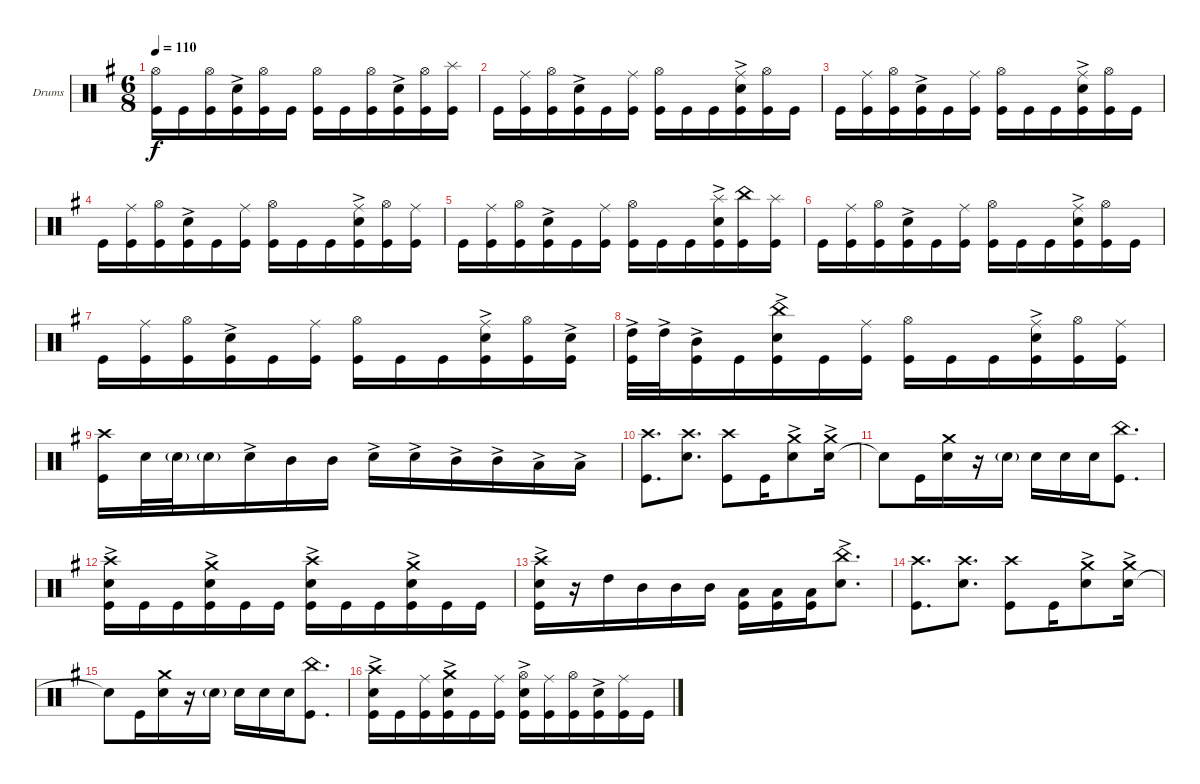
\bracketExtendMode groupsimilarinstruments
\firstSystemTrackNameOrientation horizontal
\otherSystemsTrackNameOrientation horizontal
\track ("Drumkit" "Drums") {instrument percussion}
\staff {score}
\articulation defaults
\ts (6 8)
\tempo 110
\clef neutral
\ks eminor
("Kick (hit)" "Hi-Hat (open)").16{dy f} "Kick (hit)".16 ("Kick (hit)" "Hi-Hat (open)").16 ("Kick (hit)" "Snare (hit) 2"{ac}).16 ("Kick (hit)" "Hi-Hat (open)").16 "Kick (hit)".16 ("Kick (hit)" "Hi-Hat (open)").16 "Kick (hit)".16 ("Kick (hit)" "Hi-Hat (open)").16 ("Kick (hit)" "Snare (hit) 2"{ac}).16 ("Kick (hit)" "Hi-Hat (open)").16 ("Kick (hit)" "Splash (hit)").16 |
"Kick (hit)".16 ("Kick (hit)" "Ride (middle)").16 ("Kick (hit)" "Hi-Hat (open)").16 ("Kick (hit)" "Snare (hit) 2"{ac}).16 "Kick (hit)".16 ("Kick (hit)" "Ride (middle)").16 ("Kick (hit)" "Hi-Hat (open)").16 "Kick (hit)".16 "Kick (hit)".16 ("Kick (hit)" "Snare (hit) 2"{ac} "Ride (middle)").16 ("Kick (hit)" "Hi-Hat (open)").16 "Kick (hit)".16 |
"Kick (hit)".16 ("Kick (hit)" "Ride (middle)").16 ("Kick (hit)" "Hi-Hat (open)").16 ("Kick (hit)" "Snare (hit) 2"{ac}).16 "Kick (hit)".16 ("Kick (hit)" "Ride (middle)").16 ("Kick (hit)" "Hi-Hat (open)").16 "Kick (hit)".16 "Kick (hit)".16 ("Kick (hit)" "Snare (hit) 2"{ac} "Ride (middle)").16 ("Kick (hit)" "Hi-Hat (open)").16 "Kick (hit)".16 |
"Kick (hit)".16 ("Kick (hit)" "Ride (middle)").16 ("Kick (hit)" "Hi-Hat (open)").16 ("Kick (hit)" "Snare (hit) 2"{ac}).16 "Kick (hit)".16 ("Kick (hit)" "Ride (middle)").16 ("Kick (hit)" "Hi-Hat (open)").16 "Kick (hit)".16 "Kick (hit)".16 ("Kick (hit)" "Snare (hit) 2"{ac} "Ride (middle)").16 ("Kick (hit)" "Hi-Hat (open)").16 ("Kick (hit)" "Ride (middle)").16 |
"Kick (hit)".16 ("Kick (hit)" "Ride (middle)").16 ("Kick (hit)" "Hi-Hat (open)").16 ("Kick (hit)" "Snare (hit) 2"{ac}).16 "Kick (hit)".16 ("Kick (hit)" "Ride (middle)").16 ("Kick (hit)" "Hi-Hat (open)").16 "Kick (hit)".16 "Kick (hit)".16 ("Kick (hit)" "Snare (hit) 2"{ac} "Splash (hit)").16 ("Kick (hit)" "China (hit)").16 ("Kick (hit)" "Splash (hit)").16 |
"Kick (hit)".16 ("Kick (hit)" "Ride (middle)").16 ("Kick (hit)" "Hi-Hat (open)").16 ("Kick (hit)" "Snare (hit) 2"{ac}).16 "Kick (hit)".16 ("Kick (hit)" "Ride (middle)").16 ("Kick (hit)" "Hi-Hat (open)").16 "Kick (hit)".16 "Kick (hit)".16 ("Kick (hit)" "Snare (hit) 2"{ac} "Ride (middle)").16 ("Kick (hit)" "Hi-Hat (open)").16 "Kick (hit)".16 |
"Kick (hit)".16 ("Kick (hit)" "Ride (middle)").16 ("Kick (hit)" "Hi-Hat (open)").16 ("Kick (hit)" "Snare (hit) 2"{ac}).16 "Kick (hit)".16 ("Kick (hit)" "Ride (middle)").16 ("Kick (hit)" "Hi-Hat (open)").16 "Kick (hit)".16 "Kick (hit)".16 ("Kick (hit)" "Snare (hit) 2"{ac} "Ride (middle)").16 ("Kick (hit)" "Hi-Hat (open)").16 ("Kick (hit)" "Snare (hit) 2"{ac}).16 |
("High Tom (hit)"{ac} "Kick (hit)").32 "High Tom (hit)"{ac}.32 ("Kick (hit)" "Mid Tom (hit)"{ac}).16 "Kick (hit)".16 ("Kick (hit)" "Snare (hit) 2"{ac} "China (hit)").16 "Kick (hit)".16 ("Kick (hit)" "Ride (middle)").16 ("Kick (hit)" "Hi-Hat (open)").16 "Kick (hit)".16 "Kick (hit)".16 ("Kick (hit)" "Snare (hit) 2"{ac} "Ride (middle)").16 ("Kick (hit)" "Hi-Hat (open)").16 ("Kick (hit)" "Ride (middle)").16 |
("Kick (hit)" "Crash high (hit)").16 "Snare (hit) 2".32 "Snare (hit) 2"{g}.32 "Snare (hit) 2"{g}.16 "Snare (hit) 2"{ac}.16 "Mid Tom (hit)".16 "Mid Tom (hit)".16 "Snare (hit) 2"{ac}.16 "Snare (hit) 2"{ac}.16 "Mid Tom (hit)"{ac}.16 "Mid Tom (hit)"{ac}.16 "Low Tom (hit)"{ac}.16 "Low Tom (hit)"{ac}.16 |
("Kick (hit)" "Crash high (hit)").8{d} ("Snare (hit) 2" "Crash high (hit)").8{d} ("Kick (hit)" "Crash high (hit)").8 "Kick (hit)".16 ("Snare (hit) 2"{ac} "Crash medium (hit)").8 ("Snare (hit) 2"{ac} "Crash medium (hit)").16 |
"Snare (hit) 2"{t}.8 "Kick (hit)".16 ("Snare (hit) 2" "Crash medium (hit)").16 r.16 "Snare (hit) 2"{g}.16 "Snare (hit) 2".16 "Snare (hit) 2".16 "Snare (hit) 2".16 ("Kick (hit)" "China (hit)").8{d} |
("Kick (hit)" "Snare (hit) 2"{ac} "Crash high (hit)").16 "Kick (hit)".16 "Kick (hit)".16 ("Kick (hit)" "Snare (hit) 2"{ac} "Crash medium (hit)").16 "Kick (hit)".16 "Kick (hit)".16 ("Kick (hit)" "Snare (hit) 2"{ac} "Crash high (hit)").16 "Kick (hit)".16 "Kick (hit)".16 ("Kick (hit)" "Snare (hit) 2"{ac} "Crash medium (hit)").16 "Kick (hit)".16 "Kick (hit)".16 |
("Kick (hit)" "Snare (hit) 2"{ac} "Crash high (hit)").16 r.16 "High Tom (hit)".16 "Mid Tom (hit)".16 "Mid Tom (hit)".16 "Mid Tom (hit)".16 ("Low Tom (hit)" "Kick (hit)").16 ("Low Tom (hit)" "Kick (hit)").16 ("Low Tom (hit)" "Kick (hit)").16 ("Snare (hit) 2"{ac} "China (hit)").8{d} |
("Kick (hit)" "Crash high (hit)").8{d} ("Snare (hit) 2" "Crash high (hit)").8{d} ("Kick (hit)" "Crash high (hit)").8 "Kick (hit)".16 ("Snare (hit) 2"{ac} "Crash medium (hit)").8 ("Snare (hit) 2"{ac} "Crash medium (hit)").16 |
"Snare (hit) 2"{t}.8 "Kick (hit)".16 ("Snare (hit) 2" "Crash medium (hit)").16 r.16 "Snare (hit) 2"{g}.16 "Snare (hit) 2".16 "Snare (hit) 2".16 "Snare (hit) 2".16 ("Kick (hit)" "China (hit)").8{d} |
("Kick (hit)" "Snare (hit) 2"{ac} "Crash high (hit)").16 "Kick (hit)".16 ("Kick (hit)" "Ride (middle)").16 ("Kick (hit)" "Snare (hit) 2"{ac} "Crash medium (hit)").16 "Kick (hit)".16 ("Kick (hit)" "Ride (middle)").16 ("Kick (hit)" "Snare (hit) 2"{ac} "Hi-Hat (open)").16 ("Kick (hit)" "Ride (middle)").16 ("Kick (hit)" "Hi-Hat (open)").16 ("Kick (hit)" "Snare (hit) 2"{ac}).16 ("Kick (hit)" "Ride (middle)").16 "Kick (hit)".16
